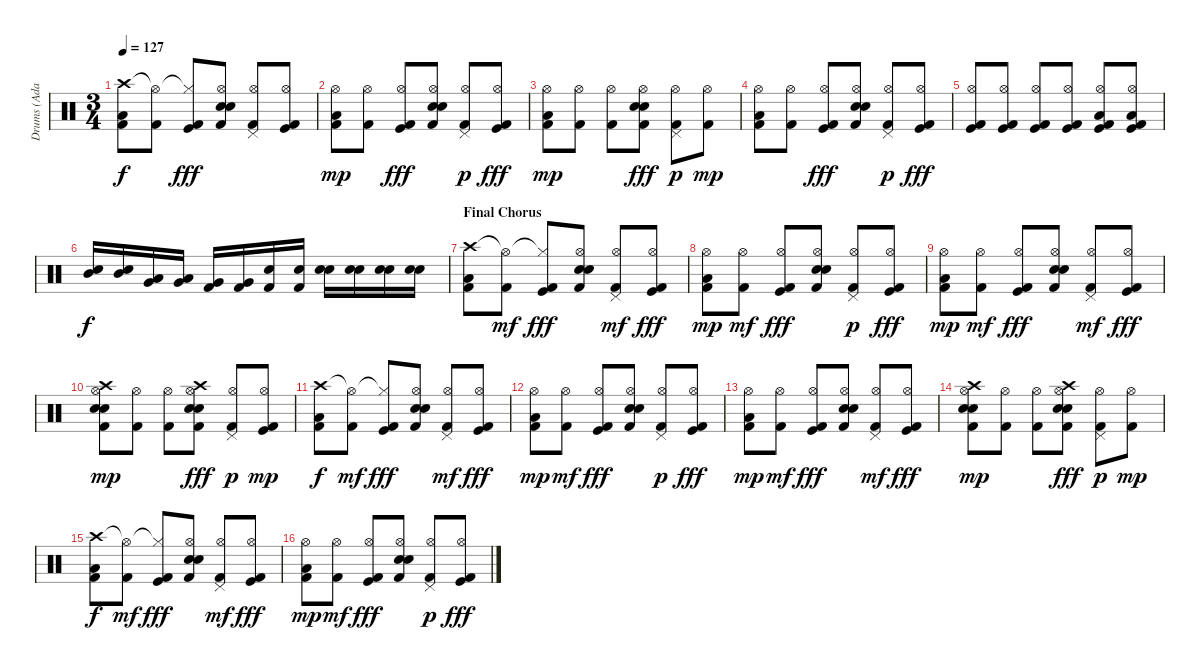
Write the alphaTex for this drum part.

\track ("Drums (Adam)" "Drums (Ada") {instrument percussion}
\staff {score}
\articulation defaults
\ts (3 4)
\tempo 127
\clef neutral
\ks c
("Crash high (hit)" "Low Tom (hit)" "Kick (hit) 2").8{dy f} ("Hi-Hat (open)"{t} "Kick (hit) 2").8 ("Hi-Hat (closed)"{t} "Kick (hit)" "Kick (hit) 2").8{dy fff} ("Hi-Hat (open)" "Electric Snare (hit)" "Electric Snare (hit)" "Kick (hit) 2").8 ("Hi-Hat (open)" "Pedal Hi-Hat (hit)" "Kick (hit) 2").8 ("Hi-Hat (open)" "Kick (hit)" "Kick (hit) 2").8 |
("Hi-Hat (open)" "Low Tom (hit)" "Kick (hit) 2").8{dy mp} ("Hi-Hat (open)" "Kick (hit) 2").8 ("Hi-Hat (open)" "Kick (hit)" "Kick (hit) 2").8{dy fff} ("Hi-Hat (open)" "Electric Snare (hit)" "Electric Snare (hit)" "Kick (hit) 2").8 ("Hi-Hat (open)" "Pedal Hi-Hat (hit)" "Kick (hit) 2").8{dy p} ("Hi-Hat (open)" "Kick (hit)" "Kick (hit) 2").8{dy fff} |
("Hi-Hat (open)" "Low Tom (hit)" "Kick (hit) 2").8{dy mp} ("Hi-Hat (open)" "Kick (hit) 2").8 ("Hi-Hat (open)" "Kick (hit) 2").8 ("Hi-Hat (open)" "Electric Snare (hit)" "Electric Snare (hit)" "Kick (hit) 2").8{dy fff} ("Hi-Hat (open)" "Pedal Hi-Hat (hit)" "Kick (hit) 2").8{dy p} ("Hi-Hat (open)" "Kick (hit) 2").8{dy mp} |
("Hi-Hat (open)" "Low Tom (hit)" "Kick (hit) 2").8 ("Hi-Hat (open)" "Kick (hit) 2").8 ("Hi-Hat (open)" "Kick (hit)" "Kick (hit) 2").8{dy fff} ("Hi-Hat (open)" "Electric Snare (hit)" "Electric Snare (hit)" "Kick (hit) 2").8 ("Hi-Hat (open)" "Pedal Hi-Hat (hit)" "Kick (hit) 2").8{dy p} ("Hi-Hat (open)" "Kick (hit)" "Kick (hit) 2").8{dy fff} |
("Hi-Hat (open)" "Kick (hit)" "Kick (hit) 2").8 ("Hi-Hat (open)" "Kick (hit)" "Kick (hit) 2").8 ("Hi-Hat (open)" "Kick (hit)" "Kick (hit) 2").8 ("Hi-Hat (open)" "Kick (hit)" "Kick (hit) 2").8 ("Hi-Hat (open)" "Low Tom (hit)" "Kick (hit)" "Kick (hit) 2").8 ("Hi-Hat (open)" "Low Tom (hit)" "Kick (hit)" "Kick (hit) 2").8 |
("Electric Snare (hit)" "Mid Tom (hit)").16{dy f} ("Electric Snare (hit)" "Mid Tom (hit)").16 ("Very Low Tom (hit)" "Low Tom (hit)").16 ("Very Low Tom (hit)" "Low Tom (hit)").16 ("Very Low Tom (hit)" "Kick (hit) 2").16 ("Very Low Tom (hit)" "Kick (hit) 2").16 ("Electric Snare (hit)" "Kick (hit) 2").16 ("Electric Snare (hit)" "Kick (hit) 2").16 ("Electric Snare (hit)" "Snare (hit) 2").16 ("Electric Snare (hit)" "Snare (hit) 2").16 ("Electric Snare (hit)" "Snare (hit) 2").16 ("Electric Snare (hit)" "Snare (hit) 2").16 |
\section ("" "Final Chorus")
("Crash high (hit)" "Low Tom (hit)" "Kick (hit) 2").8 ("Hi-Hat (open)"{t} "Kick (hit) 2").8{dy mf} ("Hi-Hat (closed)"{t} "Kick (hit)" "Kick (hit) 2").8{dy fff} ("Hi-Hat (open)" "Electric Snare (hit)" "Electric Snare (hit)" "Kick (hit) 2").8 ("Hi-Hat (open)" "Pedal Hi-Hat (hit)" "Kick (hit) 2").8{dy mf} ("Hi-Hat (open)" "Kick (hit)" "Kick (hit) 2").8{dy fff} |
("Hi-Hat (open)" "Low Tom (hit)" "Kick (hit) 2").8{dy mp} ("Hi-Hat (open)" "Kick (hit) 2").8{dy mf} ("Hi-Hat (open)" "Kick (hit)" "Kick (hit) 2").8{dy fff} ("Hi-Hat (open)" "Electric Snare (hit)" "Electric Snare (hit)" "Kick (hit) 2").8 ("Hi-Hat (open)" "Pedal Hi-Hat (hit)" "Kick (hit) 2").8{dy p} ("Hi-Hat (open)" "Kick (hit)" "Kick (hit) 2").8{dy fff} |
("Hi-Hat (open)" "Low Tom (hit)" "Kick (hit) 2").8{dy mp} ("Hi-Hat (open)" "Kick (hit) 2").8{dy mf} ("Hi-Hat (open)" "Kick (hit)" "Kick (hit) 2").8{dy fff} ("Hi-Hat (open)" "Electric Snare (hit)" "Electric Snare (hit)" "Kick (hit) 2").8 ("Hi-Hat (open)" "Pedal Hi-Hat (hit)" "Kick (hit) 2").8{dy mf} ("Hi-Hat (open)" "Kick (hit)" "Kick (hit) 2").8{dy fff} |
("Crash high (hit)" "Hi-Hat (open)" "Electric Snare (hit)" "Electric Snare (hit)" "Kick (hit) 2").8{dy mp} ("Hi-Hat (open)" "Kick (hit) 2").8 ("Hi-Hat (open)" "Kick (hit) 2").8 ("Crash high (hit)" "Hi-Hat (open)" "Electric Snare (hit)" "Electric Snare (hit)" "Kick (hit) 2").8{dy fff} ("Hi-Hat (open)" "Pedal Hi-Hat (hit)" "Kick (hit) 2").8{dy p} ("Hi-Hat (open)" "Kick (hit)" "Kick (hit) 2").8{dy mp} |
("Crash high (hit)" "Low Tom (hit)" "Kick (hit) 2").8{dy f} ("Hi-Hat (open)"{t} "Kick (hit) 2").8{dy mf} ("Hi-Hat (closed)"{t} "Kick (hit)" "Kick (hit) 2").8{dy fff} ("Hi-Hat (open)" "Electric Snare (hit)" "Electric Snare (hit)" "Kick (hit) 2").8 ("Hi-Hat (open)" "Pedal Hi-Hat (hit)" "Kick (hit) 2").8{dy mf} ("Hi-Hat (open)" "Kick (hit)" "Kick (hit) 2").8{dy fff} |
("Hi-Hat (open)" "Low Tom (hit)" "Kick (hit) 2").8{dy mp} ("Hi-Hat (open)" "Kick (hit) 2").8{dy mf} ("Hi-Hat (open)" "Kick (hit)" "Kick (hit) 2").8{dy fff} ("Hi-Hat (open)" "Electric Snare (hit)" "Electric Snare (hit)" "Kick (hit) 2").8 ("Hi-Hat (open)" "Pedal Hi-Hat (hit)" "Kick (hit) 2").8{dy p} ("Hi-Hat (open)" "Kick (hit)" "Kick (hit) 2").8{dy fff} |
("Hi-Hat (open)" "Low Tom (hit)" "Kick (hit) 2").8{dy mp} ("Hi-Hat (open)" "Kick (hit) 2").8{dy mf} ("Hi-Hat (open)" "Kick (hit)" "Kick (hit) 2").8{dy fff} ("Hi-Hat (open)" "Electric Snare (hit)" "Electric Snare (hit)" "Kick (hit) 2").8 ("Hi-Hat (open)" "Pedal Hi-Hat (hit)" "Kick (hit) 2").8{dy mf} ("Hi-Hat (open)" "Kick (hit)" "Kick (hit) 2").8{dy fff} |
("Crash high (hit)" "Hi-Hat (open)" "Electric Snare (hit)" "Electric Snare (hit)" "Kick (hit) 2").8{dy mp} ("Hi-Hat (open)" "Kick (hit) 2").8 ("Hi-Hat (open)" "Kick (hit) 2").8 ("Crash high (hit)" "Hi-Hat (open)" "Electric Snare (hit)" "Electric Snare (hit)" "Kick (hit) 2").8{dy fff} ("Hi-Hat (open)" "Pedal Hi-Hat (hit)" "Kick (hit) 2").8{dy p} ("Hi-Hat (open)" "Kick (hit) 2").8{dy mp} |
("Crash high (hit)" "Low Tom (hit)" "Kick (hit) 2").8{dy f} ("Hi-Hat (open)"{t} "Kick (hit) 2").8{dy mf} ("Hi-Hat (closed)"{t} "Kick (hit)" "Kick (hit) 2").8{dy fff} ("Hi-Hat (open)" "Electric Snare (hit)" "Electric Snare (hit)" "Kick (hit) 2").8 ("Hi-Hat (open)" "Pedal Hi-Hat (hit)" "Kick (hit) 2").8{dy mf} ("Hi-Hat (open)" "Kick (hit)" "Kick (hit) 2").8{dy fff} |
("Hi-Hat (open)" "Low Tom (hit)" "Kick (hit) 2").8{dy mp} ("Hi-Hat (open)" "Kick (hit) 2").8{dy mf} ("Hi-Hat (open)" "Kick (hit)" "Kick (hit) 2").8{dy fff} ("Hi-Hat (open)" "Electric Snare (hit)" "Electric Snare (hit)" "Kick (hit) 2").8 ("Hi-Hat (open)" "Pedal Hi-Hat (hit)" "Kick (hit) 2").8{dy p} ("Hi-Hat (open)" "Kick (hit)" "Kick (hit) 2").8{dy fff}
